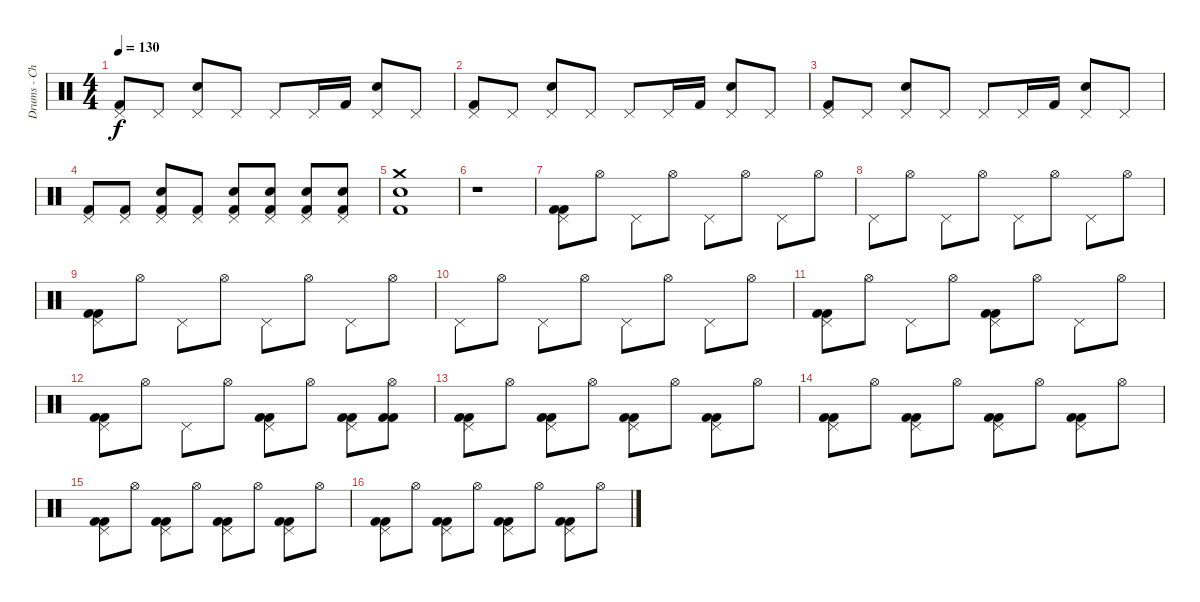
\track ("Drums - Christoph Schneider" "Drums - Ch") {instrument percussion}
\staff {score}
\articulation defaults
\ts (4 4)
\tempo 130
\clef neutral
\ks c
("Pedal Hi-Hat (hit)" "Kick (hit) 2").8{dy f} "Pedal Hi-Hat (hit)".8 ("Pedal Hi-Hat (hit)" "Electric Snare (hit)").8 "Pedal Hi-Hat (hit)".8 "Pedal Hi-Hat (hit)".8 "Pedal Hi-Hat (hit)".16 "Kick (hit) 2".16 ("Pedal Hi-Hat (hit)" "Electric Snare (hit)").8 "Pedal Hi-Hat (hit)".8 |
("Pedal Hi-Hat (hit)" "Kick (hit) 2").8 "Pedal Hi-Hat (hit)".8 ("Pedal Hi-Hat (hit)" "Electric Snare (hit)").8 "Pedal Hi-Hat (hit)".8 "Pedal Hi-Hat (hit)".8 "Pedal Hi-Hat (hit)".16 "Kick (hit) 2".16 ("Pedal Hi-Hat (hit)" "Electric Snare (hit)").8 "Pedal Hi-Hat (hit)".8 |
("Pedal Hi-Hat (hit)" "Kick (hit) 2").8 "Pedal Hi-Hat (hit)".8 ("Pedal Hi-Hat (hit)" "Electric Snare (hit)").8 "Pedal Hi-Hat (hit)".8 "Pedal Hi-Hat (hit)".8 "Pedal Hi-Hat (hit)".16 "Kick (hit) 2".16 ("Pedal Hi-Hat (hit)" "Electric Snare (hit)").8 "Pedal Hi-Hat (hit)".8 |
("Pedal Hi-Hat (hit)" "Kick (hit) 2").8 ("Pedal Hi-Hat (hit)" "Kick (hit) 2").8 ("Pedal Hi-Hat (hit)" "Electric Snare (hit)" "Kick (hit) 2").8 ("Pedal Hi-Hat (hit)" "Kick (hit) 2").8 ("Pedal Hi-Hat (hit)" "Electric Snare (hit)" "Kick (hit) 2").8 ("Pedal Hi-Hat (hit)" "Electric Snare (hit)" "Kick (hit) 2").8 ("Pedal Hi-Hat (hit)" "Electric Snare (hit)" "Kick (hit) 2").8 ("Pedal Hi-Hat (hit)" "Electric Snare (hit)" "Kick (hit) 2").8 |
("Crash medium (hit)" "Electric Snare (hit)" "Kick (hit) 2").1 |
r.1 |
("Pedal Hi-Hat (hit)" "Kick (hit) 2" "Kick (hit) 2").8 "Hi-Hat (open)".8 "Pedal Hi-Hat (hit)".8 "Hi-Hat (open)".8 "Pedal Hi-Hat (hit)".8 "Hi-Hat (open)".8 "Pedal Hi-Hat (hit)".8 "Hi-Hat (open)".8 |
"Pedal Hi-Hat (hit)".8 "Hi-Hat (open)".8 "Pedal Hi-Hat (hit)".8 "Hi-Hat (open)".8 "Pedal Hi-Hat (hit)".8 "Hi-Hat (open)".8 "Pedal Hi-Hat (hit)".8 "Hi-Hat (open)".8 |
("Pedal Hi-Hat (hit)" "Kick (hit) 2" "Kick (hit) 2").8 "Hi-Hat (open)".8 "Pedal Hi-Hat (hit)".8 "Hi-Hat (open)".8 "Pedal Hi-Hat (hit)".8 "Hi-Hat (open)".8 "Pedal Hi-Hat (hit)".8 "Hi-Hat (open)".8 |
"Pedal Hi-Hat (hit)".8 "Hi-Hat (open)".8 "Pedal Hi-Hat (hit)".8 "Hi-Hat (open)".8 "Pedal Hi-Hat (hit)".8 "Hi-Hat (open)".8 "Pedal Hi-Hat (hit)".8 "Hi-Hat (open)".8 |
("Pedal Hi-Hat (hit)" "Kick (hit) 2" "Kick (hit) 2").8 "Hi-Hat (open)".8 "Pedal Hi-Hat (hit)".8 "Hi-Hat (open)".8 ("Pedal Hi-Hat (hit)" "Kick (hit) 2" "Kick (hit) 2").8 "Hi-Hat (open)".8 "Pedal Hi-Hat (hit)".8 "Hi-Hat (open)".8 |
("Pedal Hi-Hat (hit)" "Kick (hit) 2" "Kick (hit) 2").8 "Hi-Hat (open)".8 "Pedal Hi-Hat (hit)".8 "Hi-Hat (open)".8 ("Pedal Hi-Hat (hit)" "Kick (hit) 2" "Kick (hit) 2").8 "Hi-Hat (open)".8 ("Pedal Hi-Hat (hit)" "Kick (hit) 2" "Kick (hit) 2").8 ("Hi-Hat (open)" "Kick (hit) 2" "Kick (hit) 2").8 |
("Pedal Hi-Hat (hit)" "Kick (hit) 2" "Kick (hit) 2").8 "Hi-Hat (open)".8 ("Pedal Hi-Hat (hit)" "Kick (hit) 2" "Kick (hit) 2").8 "Hi-Hat (open)".8 ("Pedal Hi-Hat (hit)" "Kick (hit) 2" "Kick (hit) 2").8 "Hi-Hat (open)".8 ("Pedal Hi-Hat (hit)" "Kick (hit) 2" "Kick (hit) 2").8 "Hi-Hat (open)".8 |
("Pedal Hi-Hat (hit)" "Kick (hit) 2" "Kick (hit) 2").8 "Hi-Hat (open)".8 ("Pedal Hi-Hat (hit)" "Kick (hit) 2" "Kick (hit) 2").8 "Hi-Hat (open)".8 ("Pedal Hi-Hat (hit)" "Kick (hit) 2" "Kick (hit) 2").8 "Hi-Hat (open)".8 ("Pedal Hi-Hat (hit)" "Kick (hit) 2" "Kick (hit) 2").8 "Hi-Hat (open)".8 |
("Pedal Hi-Hat (hit)" "Kick (hit) 2" "Kick (hit) 2").8 "Hi-Hat (open)".8 ("Pedal Hi-Hat (hit)" "Kick (hit) 2" "Kick (hit) 2").8 "Hi-Hat (open)".8 ("Pedal Hi-Hat (hit)" "Kick (hit) 2" "Kick (hit) 2").8 "Hi-Hat (open)".8 ("Pedal Hi-Hat (hit)" "Kick (hit) 2" "Kick (hit) 2").8 "Hi-Hat (open)".8 |
("Pedal Hi-Hat (hit)" "Kick (hit) 2" "Kick (hit) 2").8 "Hi-Hat (open)".8 ("Pedal Hi-Hat (hit)" "Kick (hit) 2" "Kick (hit) 2").8 "Hi-Hat (open)".8 ("Pedal Hi-Hat (hit)" "Kick (hit) 2" "Kick (hit) 2").8 "Hi-Hat (open)".8 ("Pedal Hi-Hat (hit)" "Kick (hit) 2" "Kick (hit) 2").8 "Hi-Hat (open)".8
